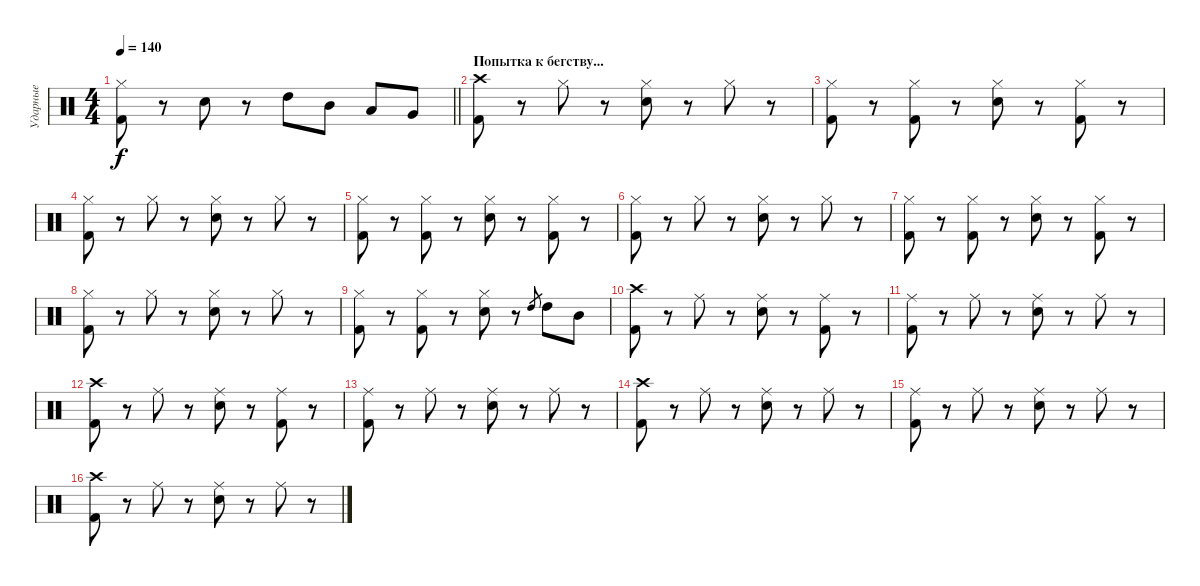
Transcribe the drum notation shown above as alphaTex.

\track ("Ударные" "Ударные") {instrument percussion}
\staff {score}
\articulation defaults
\ts (4 4)
\tempo 140
\clef neutral
\barLineRight lightlight
\ks c
("Kick (hit) 2" "Hi-Hat (closed)").8{dy f} r.8 "Electric Snare (hit)".8 r.8 "High Tom (hit)".8 "Mid Tom (hit)".8 "Low Tom (hit)".8 "Very Low Tom (hit)".8 |
\section ("" "Попытка к бегству...")
("Kick (hit) 2" "Crash high (hit)").8 r.8 "Hi-Hat (closed)".8 r.8 ("Electric Snare (hit)" "Hi-Hat (closed)").8 r.8 "Hi-Hat (closed)".8 r.8 |
("Kick (hit) 2" "Hi-Hat (closed)").8 r.8 ("Hi-Hat (closed)" "Kick (hit) 2").8 r.8 ("Electric Snare (hit)" "Hi-Hat (closed)").8 r.8 ("Hi-Hat (closed)" "Kick (hit) 2").8 r.8 |
("Kick (hit) 2" "Hi-Hat (closed)").8 r.8 "Hi-Hat (closed)".8 r.8 ("Electric Snare (hit)" "Hi-Hat (closed)").8 r.8 "Hi-Hat (closed)".8 r.8 |
("Kick (hit) 2" "Hi-Hat (closed)").8 r.8 ("Hi-Hat (closed)" "Kick (hit) 2").8 r.8 ("Electric Snare (hit)" "Hi-Hat (closed)").8 r.8 ("Hi-Hat (closed)" "Kick (hit) 2").8 r.8 |
("Kick (hit) 2" "Hi-Hat (closed)").8 r.8 "Hi-Hat (closed)".8 r.8 ("Electric Snare (hit)" "Hi-Hat (closed)").8 r.8 "Hi-Hat (closed)".8 r.8 |
("Kick (hit) 2" "Hi-Hat (closed)").8 r.8 ("Hi-Hat (closed)" "Kick (hit) 2").8 r.8 ("Electric Snare (hit)" "Hi-Hat (closed)").8 r.8 ("Hi-Hat (closed)" "Kick (hit) 2").8 r.8 |
("Kick (hit) 2" "Hi-Hat (closed)").8 r.8 "Hi-Hat (closed)".8 r.8 ("Electric Snare (hit)" "Hi-Hat (closed)").8 r.8 "Hi-Hat (closed)".8 r.8 |
("Kick (hit) 2" "Hi-Hat (closed)").8 r.8 ("Hi-Hat (closed)" "Kick (hit) 2").8 r.8 ("Electric Snare (hit)" "Hi-Hat (closed)").8 r.8 "High Tom (hit)".8{gr} "High Tom (hit)".8 "Mid Tom (hit)".8 |
("Kick (hit) 2" "Crash high (hit)").8 r.8 "Ride (middle)".8 r.8 ("Electric Snare (hit)" "Ride (middle)").8 r.8 ("Kick (hit) 2" "Ride (middle)").8 r.8 |
("Kick (hit) 2" "Ride (middle)").8 r.8 "Ride (middle)".8 r.8 ("Electric Snare (hit)" "Ride (middle)").8 r.8 "Ride (middle)".8 r.8 |
("Kick (hit) 2" "Crash high (hit)").8 r.8 "Ride (middle)".8 r.8 ("Electric Snare (hit)" "Ride (middle)").8 r.8 ("Kick (hit) 2" "Ride (middle)").8 r.8 |
("Kick (hit) 2" "Ride (middle)").8 r.8 "Ride (middle)".8 r.8 ("Electric Snare (hit)" "Ride (middle)").8 r.8 "Ride (middle)".8 r.8 |
("Kick (hit) 2" "Crash high (hit)").8 r.8 "Ride (middle)".8 r.8 ("Electric Snare (hit)" "Ride (middle)").8 r.8 "Ride (middle)".8 r.8 |
("Kick (hit) 2" "Ride (middle)").8 r.8 "Ride (middle)".8 r.8 ("Electric Snare (hit)" "Ride (middle)").8 r.8 "Ride (middle)".8 r.8 |
("Kick (hit) 2" "Crash high (hit)").8 r.8 "Ride (middle)".8 r.8 ("Electric Snare (hit)" "Ride (middle)").8 r.8 "Ride (middle)".8 r.8
